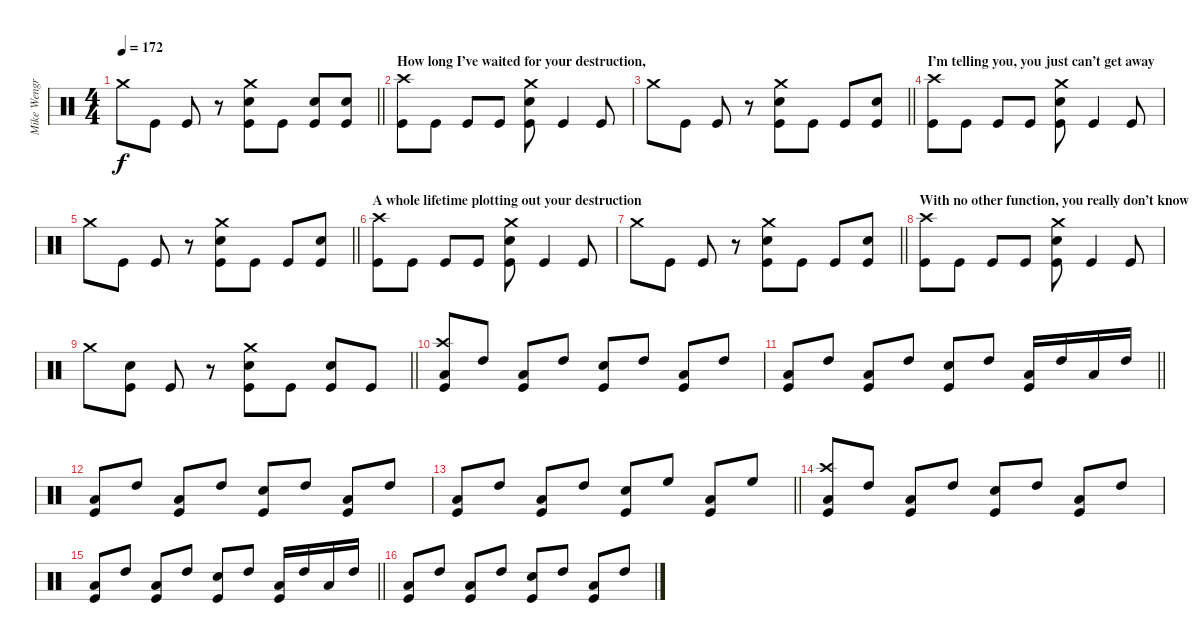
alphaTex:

\track ("Mike Wengren - Drums" "Mike Wengr") {instrument percussion}
\staff {score}
\articulation defaults
\ts (4 4)
\tempo 172
\clef neutral
\barLineRight lightlight
\ks c "Crash medium (hit)".8{dy f} "Kick (hit)".8 "Kick (hit)".8
r.8 ("Crash medium (hit)" "Snare (hit) 2" "Kick (hit)").8 "Kick (hit)".8 ("Snare (hit) 2" "Kick (hit)").8 ("Snare (hit) 2" "Kick (hit)").8 |
\section ("" "How long I’ve waited for your destruction,")
("Crash high (hit)" "Kick (hit)").8 "Kick (hit)".8 "Kick (hit)".8 "Kick (hit)".8 ("Crash medium (hit)" "Snare (hit) 2" "Kick (hit)").8 "Kick (hit)".4 "Kick (hit)".8 |
\barLineRight lightlight "Crash medium (hit)".8 "Kick (hit)".8 "Kick (hit)".8
r.8 ("Crash medium (hit)" "Snare (hit) 2" "Kick (hit)").8 "Kick (hit)".8 "Kick (hit)".8 ("Snare (hit) 2" "Kick (hit)").8 |
\section ("" "I’m telling you, you just can’t get away")
("Crash high (hit)" "Kick (hit)").8 "Kick (hit)".8 "Kick (hit)".8 "Kick (hit)".8 ("Crash medium (hit)" "Snare (hit) 2" "Kick (hit)").8 "Kick (hit)".4 "Kick (hit)".8 |
\barLineRight lightlight "Crash medium (hit)".8 "Kick (hit)".8 "Kick (hit)".8
r.8 ("Crash medium (hit)" "Snare (hit) 2" "Kick (hit)").8 "Kick (hit)".8 "Kick (hit)".8 ("Snare (hit) 2" "Kick (hit)").8 |
\section ("" "A whole lifetime plotting out your destruction")
("Crash high (hit)" "Kick (hit)").8 "Kick (hit)".8 "Kick (hit)".8 "Kick (hit)".8 ("Crash medium (hit)" "Snare (hit) 2" "Kick (hit)").8 "Kick (hit)".4 "Kick (hit)".8 |
\barLineRight lightlight "Crash medium (hit)".8 "Kick (hit)".8 "Kick (hit)".8
r.8 ("Crash medium (hit)" "Snare (hit) 2" "Kick (hit)").8 "Kick (hit)".8 "Kick (hit)".8 ("Snare (hit) 2" "Kick (hit)").8 |
\section ("" "With no other function, you really don’t know")
("Crash high (hit)" "Kick (hit)").8 "Kick (hit)".8 "Kick (hit)".8 "Kick (hit)".8 ("Crash medium (hit)" "Snare (hit) 2" "Kick (hit)").8 "Kick (hit)".4 "Kick (hit)".8 |
\barLineRight lightlight "Crash medium (hit)".8
("Snare (hit) 2" "Kick (hit)").8 "Kick (hit)".8 r.8 ("Crash medium (hit)" "Snare (hit) 2" "Kick (hit)").8 "Kick (hit)".8 ("Snare (hit) 2" "Kick (hit)").8 "Kick (hit)".8 |
("Crash high (hit)" "Low Tom (hit)" "Kick (hit)").8 "High Tom (hit)".8 ("Low Tom (hit)" "Kick (hit)").8 "High Tom (hit)".8 ("Snare (hit) 2" "Kick (hit)").8 "High Tom (hit)".8 ("Low Tom (hit)" "Kick (hit)").8 "High Tom (hit)".8 |
\barLineRight lightlight
("Low Tom (hit)" "Kick (hit)").8 "High Tom (hit)".8 ("Low Tom (hit)" "Kick (hit)").8 "High Tom (hit)".8 ("Snare (hit) 2" "Kick (hit)").8 "High Tom (hit)".8 ("Low Tom (hit)" "Kick (hit)").16 "High Tom (hit)".16 "Low Tom (hit)".16 "High Tom (hit)".16 |
("Low Tom (hit)" "Kick (hit)").8 "High Tom (hit)".8 ("Low Tom (hit)" "Kick (hit)").8 "High Tom (hit)".8 ("Snare (hit) 2" "Kick (hit)").8 "High Tom (hit)".8 ("Low Tom (hit)" "Kick (hit)").8 "High Tom (hit)".8 |
\barLineRight lightlight
("Low Tom (hit)" "Kick (hit)").8 "High Tom (hit)".8 ("Low Tom (hit)" "Kick (hit)").8 "High Tom (hit)".8 ("Snare (hit) 2" "Kick (hit)").8 "High Floor Tom (hit)".8 ("Low Tom (hit)" "Kick (hit)").8 "High Floor Tom (hit)".8 |
("Crash high (hit)" "Low Tom (hit)" "Kick (hit)").8 "High Tom (hit)".8 ("Low Tom (hit)" "Kick (hit)").8 "High Tom (hit)".8 ("Snare (hit) 2" "Kick (hit)").8 "High Tom (hit)".8 ("Low Tom (hit)" "Kick (hit)").8 "High Tom (hit)".8 |
\barLineRight lightlight
("Low Tom (hit)" "Kick (hit)").8 "High Tom (hit)".8 ("Low Tom (hit)" "Kick (hit)").8 "High Tom (hit)".8 ("Snare (hit) 2" "Kick (hit)").8 "High Tom (hit)".8 ("Low Tom (hit)" "Kick (hit)").16 "High Tom (hit)".16 "Low Tom (hit)".16 "High Tom (hit)".16 |
("Low Tom (hit)" "Kick (hit)").8 "High Tom (hit)".8 ("Low Tom (hit)" "Kick (hit)").8 "High Tom (hit)".8 ("Snare (hit) 2" "Kick (hit)").8 "High Tom (hit)".8 ("Low Tom (hit)" "Kick (hit)").8 "High Tom (hit)".8
